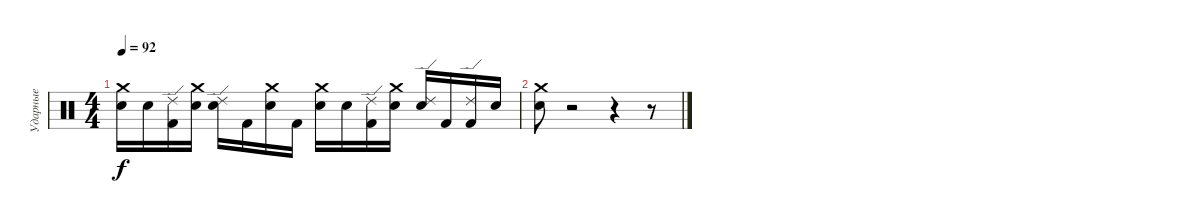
\track ("Ударные" "Ударные") {instrument percussion}
\staff {score}
\articulation defaults
\ts (4 4)
\tempo 92
\clef neutral
\ks c
("Crash medium (hit)" "Electric Snare (hit)").16{dy f} "Electric Snare (hit)".16 ("Ride (edge) 2" "Kick (hit) 2").16 ("Crash medium (hit)" "Electric Snare (hit)").16 ("Ride (edge) 2" "Electric Snare (hit)").16 "Kick (hit) 2".16 ("Crash medium (hit)" "Electric Snare (hit)").16 "Kick (hit) 2".16 ("Crash medium (hit)" "Electric Snare (hit)").16 "Electric Snare (hit)".16 ("Ride (edge) 2" "Kick (hit) 2").16 ("Crash medium (hit)" "Electric Snare (hit)").16 ("Ride (edge) 2" "Electric Snare (hit)").16 "Kick (hit) 2".16 ("Ride (edge) 2" "Kick (hit) 2").16 "Electric Snare (hit)".16 |
("Crash medium (hit)" "Electric Snare (hit)").8 r.2 r.4 r.8
